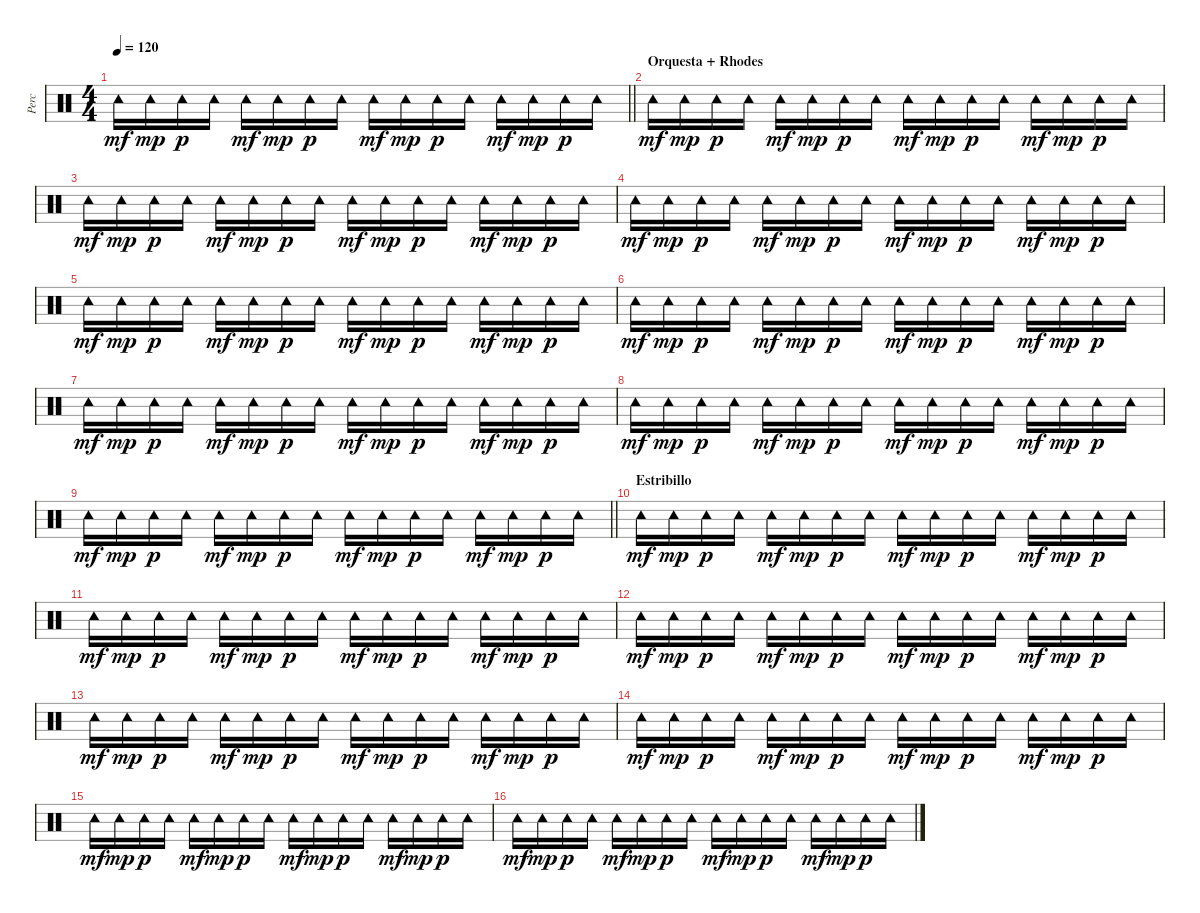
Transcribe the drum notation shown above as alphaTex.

\track ("Perc" "Perc") {instrument percussion}
\staff {score}
\articulation defaults
\ts (4 4)
\tempo 120
\clef neutral
\barLineRight lightlight
\ks c "Tambourine (hit)".16{dy mf} "Tambourine (hit)".16{dy mp} "Tambourine (hit)".16{dy p} "Tambourine (hit)".16 "Tambourine (hit)".16{dy mf} "Tambourine (hit)".16{dy mp} "Tambourine (hit)".16{dy p} "Tambourine (hit)".16 "Tambourine (hit)".16{dy mf} "Tambourine (hit)".16{dy mp} "Tambourine (hit)".16{dy p} "Tambourine (hit)".16 "Tambourine (hit)".16{dy mf} "Tambourine (hit)".16{dy mp} "Tambourine (hit)".16{dy p} "Tambourine (hit)".16
|
\section ("" "Orquesta + Rhodes")
"Tambourine (hit)".16{dy mf} "Tambourine (hit)".16{dy mp} "Tambourine (hit)".16{dy p} "Tambourine (hit)".16 "Tambourine (hit)".16{dy mf} "Tambourine (hit)".16{dy mp} "Tambourine (hit)".16{dy p} "Tambourine (hit)".16 "Tambourine (hit)".16{dy mf} "Tambourine (hit)".16{dy mp} "Tambourine (hit)".16{dy p} "Tambourine (hit)".16 "Tambourine (hit)".16{dy mf} "Tambourine (hit)".16{dy mp} "Tambourine (hit)".16{dy p} "Tambourine (hit)".16 |
"Tambourine (hit)".16{dy mf} "Tambourine (hit)".16{dy mp} "Tambourine (hit)".16{dy p} "Tambourine (hit)".16 "Tambourine (hit)".16{dy mf} "Tambourine (hit)".16{dy mp} "Tambourine (hit)".16{dy p} "Tambourine (hit)".16 "Tambourine (hit)".16{dy mf} "Tambourine (hit)".16{dy mp} "Tambourine (hit)".16{dy p} "Tambourine (hit)".16 "Tambourine (hit)".16{dy mf} "Tambourine (hit)".16{dy mp} "Tambourine (hit)".16{dy p} "Tambourine (hit)".16 |
"Tambourine (hit)".16{dy mf} "Tambourine (hit)".16{dy mp} "Tambourine (hit)".16{dy p} "Tambourine (hit)".16 "Tambourine (hit)".16{dy mf} "Tambourine (hit)".16{dy mp} "Tambourine (hit)".16{dy p} "Tambourine (hit)".16 "Tambourine (hit)".16{dy mf} "Tambourine (hit)".16{dy mp} "Tambourine (hit)".16{dy p} "Tambourine (hit)".16 "Tambourine (hit)".16{dy mf} "Tambourine (hit)".16{dy mp} "Tambourine (hit)".16{dy p} "Tambourine (hit)".16 |
"Tambourine (hit)".16{dy mf} "Tambourine (hit)".16{dy mp} "Tambourine (hit)".16{dy p} "Tambourine (hit)".16 "Tambourine (hit)".16{dy mf} "Tambourine (hit)".16{dy mp} "Tambourine (hit)".16{dy p} "Tambourine (hit)".16 "Tambourine (hit)".16{dy mf} "Tambourine (hit)".16{dy mp} "Tambourine (hit)".16{dy p} "Tambourine (hit)".16 "Tambourine (hit)".16{dy mf} "Tambourine (hit)".16{dy mp} "Tambourine (hit)".16{dy p} "Tambourine (hit)".16 |
"Tambourine (hit)".16{dy mf} "Tambourine (hit)".16{dy mp} "Tambourine (hit)".16{dy p} "Tambourine (hit)".16 "Tambourine (hit)".16{dy mf} "Tambourine (hit)".16{dy mp} "Tambourine (hit)".16{dy p} "Tambourine (hit)".16 "Tambourine (hit)".16{dy mf} "Tambourine (hit)".16{dy mp} "Tambourine (hit)".16{dy p} "Tambourine (hit)".16 "Tambourine (hit)".16{dy mf} "Tambourine (hit)".16{dy mp} "Tambourine (hit)".16{dy p} "Tambourine (hit)".16 |
"Tambourine (hit)".16{dy mf} "Tambourine (hit)".16{dy mp} "Tambourine (hit)".16{dy p} "Tambourine (hit)".16 "Tambourine (hit)".16{dy mf} "Tambourine (hit)".16{dy mp} "Tambourine (hit)".16{dy p} "Tambourine (hit)".16 "Tambourine (hit)".16{dy mf} "Tambourine (hit)".16{dy mp} "Tambourine (hit)".16{dy p} "Tambourine (hit)".16 "Tambourine (hit)".16{dy mf} "Tambourine (hit)".16{dy mp} "Tambourine (hit)".16{dy p} "Tambourine (hit)".16 |
"Tambourine (hit)".16{dy mf} "Tambourine (hit)".16{dy mp} "Tambourine (hit)".16{dy p} "Tambourine (hit)".16 "Tambourine (hit)".16{dy mf} "Tambourine (hit)".16{dy mp} "Tambourine (hit)".16{dy p} "Tambourine (hit)".16 "Tambourine (hit)".16{dy mf} "Tambourine (hit)".16{dy mp} "Tambourine (hit)".16{dy p} "Tambourine (hit)".16 "Tambourine (hit)".16{dy mf} "Tambourine (hit)".16{dy mp} "Tambourine (hit)".16{dy p} "Tambourine (hit)".16 |
\barLineRight lightlight "Tambourine (hit)".16{dy mf} "Tambourine (hit)".16{dy mp} "Tambourine (hit)".16{dy p} "Tambourine (hit)".16 "Tambourine (hit)".16{dy mf} "Tambourine (hit)".16{dy mp} "Tambourine (hit)".16{dy p} "Tambourine (hit)".16 "Tambourine (hit)".16{dy mf} "Tambourine (hit)".16{dy mp} "Tambourine (hit)".16{dy p} "Tambourine (hit)".16 "Tambourine (hit)".16{dy mf} "Tambourine (hit)".16{dy mp} "Tambourine (hit)".16{dy p} "Tambourine (hit)".16
|
\section ("" "Estribillo")
"Tambourine (hit)".16{dy mf} "Tambourine (hit)".16{dy mp} "Tambourine (hit)".16{dy p} "Tambourine (hit)".16 "Tambourine (hit)".16{dy mf} "Tambourine (hit)".16{dy mp} "Tambourine (hit)".16{dy p} "Tambourine (hit)".16 "Tambourine (hit)".16{dy mf} "Tambourine (hit)".16{dy mp} "Tambourine (hit)".16{dy p} "Tambourine (hit)".16 "Tambourine (hit)".16{dy mf} "Tambourine (hit)".16{dy mp} "Tambourine (hit)".16{dy p} "Tambourine (hit)".16 |
"Tambourine (hit)".16{dy mf} "Tambourine (hit)".16{dy mp} "Tambourine (hit)".16{dy p} "Tambourine (hit)".16 "Tambourine (hit)".16{dy mf} "Tambourine (hit)".16{dy mp} "Tambourine (hit)".16{dy p} "Tambourine (hit)".16 "Tambourine (hit)".16{dy mf} "Tambourine (hit)".16{dy mp} "Tambourine (hit)".16{dy p} "Tambourine (hit)".16 "Tambourine (hit)".16{dy mf} "Tambourine (hit)".16{dy mp} "Tambourine (hit)".16{dy p} "Tambourine (hit)".16 |
"Tambourine (hit)".16{dy mf} "Tambourine (hit)".16{dy mp} "Tambourine (hit)".16{dy p} "Tambourine (hit)".16 "Tambourine (hit)".16{dy mf} "Tambourine (hit)".16{dy mp} "Tambourine (hit)".16{dy p} "Tambourine (hit)".16 "Tambourine (hit)".16{dy mf} "Tambourine (hit)".16{dy mp} "Tambourine (hit)".16{dy p} "Tambourine (hit)".16 "Tambourine (hit)".16{dy mf} "Tambourine (hit)".16{dy mp} "Tambourine (hit)".16{dy p} "Tambourine (hit)".16 |
"Tambourine (hit)".16{dy mf} "Tambourine (hit)".16{dy mp} "Tambourine (hit)".16{dy p} "Tambourine (hit)".16 "Tambourine (hit)".16{dy mf} "Tambourine (hit)".16{dy mp} "Tambourine (hit)".16{dy p} "Tambourine (hit)".16 "Tambourine (hit)".16{dy mf} "Tambourine (hit)".16{dy mp} "Tambourine (hit)".16{dy p} "Tambourine (hit)".16 "Tambourine (hit)".16{dy mf} "Tambourine (hit)".16{dy mp} "Tambourine (hit)".16{dy p} "Tambourine (hit)".16 |
"Tambourine (hit)".16{dy mf} "Tambourine (hit)".16{dy mp} "Tambourine (hit)".16{dy p} "Tambourine (hit)".16 "Tambourine (hit)".16{dy mf} "Tambourine (hit)".16{dy mp} "Tambourine (hit)".16{dy p} "Tambourine (hit)".16 "Tambourine (hit)".16{dy mf} "Tambourine (hit)".16{dy mp} "Tambourine (hit)".16{dy p} "Tambourine (hit)".16 "Tambourine (hit)".16{dy mf} "Tambourine (hit)".16{dy mp} "Tambourine (hit)".16{dy p} "Tambourine (hit)".16 |
"Tambourine (hit)".16{dy mf} "Tambourine (hit)".16{dy mp} "Tambourine (hit)".16{dy p} "Tambourine (hit)".16 "Tambourine (hit)".16{dy mf} "Tambourine (hit)".16{dy mp} "Tambourine (hit)".16{dy p} "Tambourine (hit)".16 "Tambourine (hit)".16{dy mf} "Tambourine (hit)".16{dy mp} "Tambourine (hit)".16{dy p} "Tambourine (hit)".16 "Tambourine (hit)".16{dy mf} "Tambourine (hit)".16{dy mp} "Tambourine (hit)".16{dy p} "Tambourine (hit)".16 |
"Tambourine (hit)".16{dy mf} "Tambourine (hit)".16{dy mp} "Tambourine (hit)".16{dy p} "Tambourine (hit)".16 "Tambourine (hit)".16{dy mf} "Tambourine (hit)".16{dy mp} "Tambourine (hit)".16{dy p} "Tambourine (hit)".16 "Tambourine (hit)".16{dy mf} "Tambourine (hit)".16{dy mp} "Tambourine (hit)".16{dy p} "Tambourine (hit)".16 "Tambourine (hit)".16{dy mf} "Tambourine (hit)".16{dy mp} "Tambourine (hit)".16{dy p} "Tambourine (hit)".16
